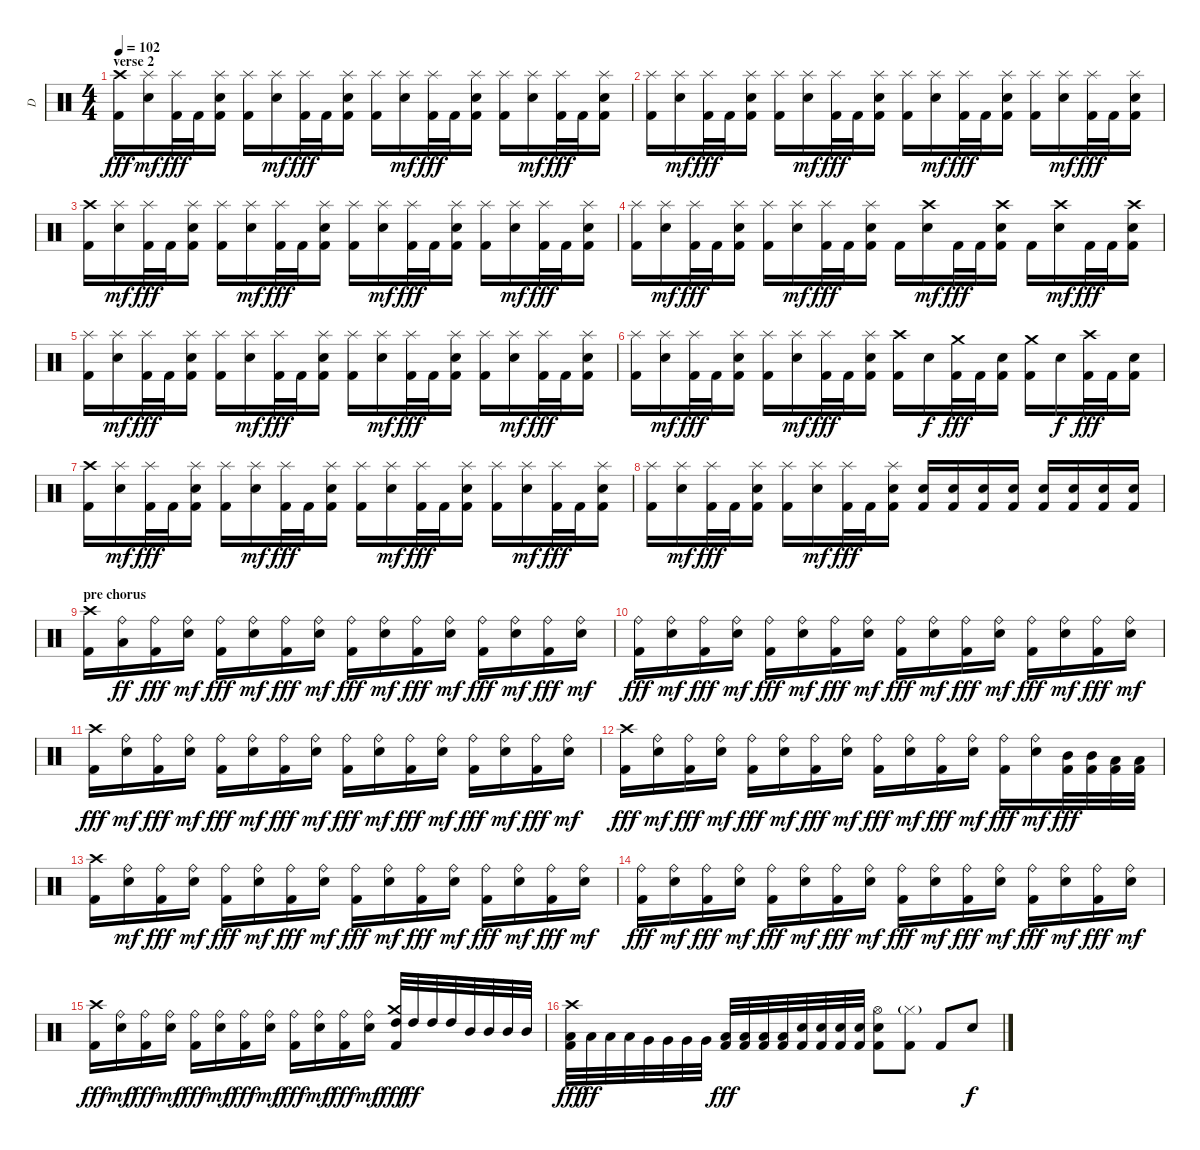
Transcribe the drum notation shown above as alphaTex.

\track ("D" "D") {instrument percussion}
\staff {score}
\articulation defaults
\ts (4 4)
\section ("" "verse 2")
\tempo 102
\clef neutral
\ks c
("Crash high (hit)" "Kick (hit) 2").16{dy fff} ("Splash (hit)" "Snare (hit) 2").16{dy mf} ("Splash (hit)" "Kick (hit) 2").32{dy fff} "Kick (hit) 2".32 ("Splash (hit)" "Snare (hit) 2" "Kick (hit) 2").16 ("Splash (hit)" "Kick (hit) 2").16 ("Splash (hit)" "Snare (hit) 2").16{dy mf} ("Splash (hit)" "Kick (hit) 2").32{dy fff} "Kick (hit) 2".32 ("Splash (hit)" "Snare (hit) 2" "Kick (hit) 2").16 ("Splash (hit)" "Kick (hit) 2").16 ("Splash (hit)" "Snare (hit) 2").16{dy mf} ("Splash (hit)" "Kick (hit) 2").32{dy fff} "Kick (hit) 2".32 ("Splash (hit)" "Snare (hit) 2" "Kick (hit) 2").16 ("Splash (hit)" "Kick (hit) 2").16 ("Splash (hit)" "Snare (hit) 2").16{dy mf} ("Splash (hit)" "Kick (hit) 2").32{dy fff} "Kick (hit) 2".32 ("Splash (hit)" "Snare (hit) 2" "Kick (hit) 2").16 |
("Splash (hit)" "Kick (hit) 2").16 ("Splash (hit)" "Snare (hit) 2").16{dy mf} ("Splash (hit)" "Kick (hit) 2").32{dy fff} "Kick (hit) 2".32 ("Splash (hit)" "Snare (hit) 2" "Kick (hit) 2").16 ("Splash (hit)" "Kick (hit) 2").16 ("Splash (hit)" "Snare (hit) 2").16{dy mf} ("Splash (hit)" "Kick (hit) 2").32{dy fff} "Kick (hit) 2".32 ("Splash (hit)" "Snare (hit) 2" "Kick (hit) 2").16 ("Splash (hit)" "Kick (hit) 2").16 ("Splash (hit)" "Snare (hit) 2").16{dy mf} ("Splash (hit)" "Kick (hit) 2").32{dy fff} "Kick (hit) 2".32 ("Splash (hit)" "Snare (hit) 2" "Kick (hit) 2").16 ("Splash (hit)" "Kick (hit) 2").16 ("Splash (hit)" "Snare (hit) 2").16{dy mf} ("Splash (hit)" "Kick (hit) 2").32{dy fff} "Kick (hit) 2".32 ("Splash (hit)" "Snare (hit) 2" "Kick (hit) 2").16 |
("Crash high (hit)" "Kick (hit) 2").16 ("Splash (hit)" "Snare (hit) 2").16{dy mf} ("Splash (hit)" "Kick (hit) 2").32{dy fff} "Kick (hit) 2".32 ("Splash (hit)" "Snare (hit) 2" "Kick (hit) 2").16 ("Splash (hit)" "Kick (hit) 2").16 ("Splash (hit)" "Snare (hit) 2").16{dy mf} ("Splash (hit)" "Kick (hit) 2").32{dy fff} "Kick (hit) 2".32 ("Splash (hit)" "Snare (hit) 2" "Kick (hit) 2").16 ("Splash (hit)" "Kick (hit) 2").16 ("Splash (hit)" "Snare (hit) 2").16{dy mf} ("Splash (hit)" "Kick (hit) 2").32{dy fff} "Kick (hit) 2".32 ("Splash (hit)" "Snare (hit) 2" "Kick (hit) 2").16 ("Splash (hit)" "Kick (hit) 2").16 ("Splash (hit)" "Snare (hit) 2").16{dy mf} ("Splash (hit)" "Kick (hit) 2").32{dy fff} "Kick (hit) 2".32 ("Splash (hit)" "Snare (hit) 2" "Kick (hit) 2").16 |
("Splash (hit)" "Kick (hit) 2").16 ("Splash (hit)" "Snare (hit) 2").16{dy mf} ("Splash (hit)" "Kick (hit) 2").32{dy fff} "Kick (hit) 2".32 ("Splash (hit)" "Snare (hit) 2" "Kick (hit) 2").16 ("Splash (hit)" "Kick (hit) 2").16 ("Splash (hit)" "Snare (hit) 2").16{dy mf} ("Splash (hit)" "Kick (hit) 2").32{dy fff} "Kick (hit) 2".32 ("Splash (hit)" "Snare (hit) 2" "Kick (hit) 2").16 "Kick (hit) 2".16 ("Crash high (hit)" "Snare (hit) 2").16{dy mf} "Kick (hit) 2".32{dy fff} "Kick (hit) 2".32 ("Crash high (hit)" "Snare (hit) 2" "Kick (hit) 2").16 "Kick (hit) 2".16 ("Crash high (hit)" "Snare (hit) 2").16{dy mf} "Kick (hit) 2".32{dy fff} "Kick (hit) 2".32 ("Crash high (hit)" "Snare (hit) 2" "Kick (hit) 2").16 |
("Splash (hit)" "Kick (hit) 2").16 ("Splash (hit)" "Snare (hit) 2").16{dy mf} ("Splash (hit)" "Kick (hit) 2").32{dy fff} "Kick (hit) 2".32 ("Splash (hit)" "Snare (hit) 2" "Kick (hit) 2").16 ("Splash (hit)" "Kick (hit) 2").16 ("Splash (hit)" "Snare (hit) 2").16{dy mf} ("Splash (hit)" "Kick (hit) 2").32{dy fff} "Kick (hit) 2".32 ("Splash (hit)" "Snare (hit) 2" "Kick (hit) 2").16 ("Splash (hit)" "Kick (hit) 2").16 ("Splash (hit)" "Snare (hit) 2").16{dy mf} ("Splash (hit)" "Kick (hit) 2").32{dy fff} "Kick (hit) 2".32 ("Splash (hit)" "Snare (hit) 2" "Kick (hit) 2").16 ("Splash (hit)" "Kick (hit) 2").16 ("Splash (hit)" "Snare (hit) 2").16{dy mf} ("Splash (hit)" "Kick (hit) 2").32{dy fff} "Kick (hit) 2".32 ("Splash (hit)" "Snare (hit) 2" "Kick (hit) 2").16 |
("Splash (hit)" "Kick (hit) 2").16 ("Splash (hit)" "Snare (hit) 2").16{dy mf} ("Splash (hit)" "Kick (hit) 2").32{dy fff} "Kick (hit) 2".32 ("Splash (hit)" "Snare (hit) 2" "Kick (hit) 2").16 ("Splash (hit)" "Kick (hit) 2").16 ("Splash (hit)" "Snare (hit) 2").16{dy mf} ("Splash (hit)" "Kick (hit) 2").32{dy fff} "Kick (hit) 2".32 ("Splash (hit)" "Snare (hit) 2" "Kick (hit) 2").16 ("Crash high (hit)" "Kick (hit) 2").16 "Snare (hit) 2".16{dy f} ("Crash medium (hit)" "Kick (hit) 2").32{dy fff} "Kick (hit) 2".32 ("Snare (hit) 2" "Kick (hit) 2").16 ("Crash medium (hit)" "Kick (hit) 2").16 "Snare (hit) 2".16{dy f} ("Crash high (hit)" "Kick (hit) 2").32{dy fff} "Kick (hit) 2".32 ("Snare (hit) 2" "Kick (hit) 2").16 |
("Crash high (hit)" "Kick (hit) 2").16 ("Splash (hit)" "Snare (hit) 2").16{dy mf} ("Splash (hit)" "Kick (hit) 2").32{dy fff} "Kick (hit) 2".32 ("Splash (hit)" "Snare (hit) 2" "Kick (hit) 2").16 ("Splash (hit)" "Kick (hit) 2").16 ("Splash (hit)" "Snare (hit) 2").16{dy mf} ("Splash (hit)" "Kick (hit) 2").32{dy fff} "Kick (hit) 2".32 ("Splash (hit)" "Snare (hit) 2" "Kick (hit) 2").16 ("Splash (hit)" "Kick (hit) 2").16 ("Splash (hit)" "Snare (hit) 2").16{dy mf} ("Splash (hit)" "Kick (hit) 2").32{dy fff} "Kick (hit) 2".32 ("Splash (hit)" "Snare (hit) 2" "Kick (hit) 2").16 ("Splash (hit)" "Kick (hit) 2").16 ("Splash (hit)" "Snare (hit) 2").16{dy mf} ("Splash (hit)" "Kick (hit) 2").32{dy fff} "Kick (hit) 2".32 ("Splash (hit)" "Snare (hit) 2" "Kick (hit) 2").16 |
("Splash (hit)" "Kick (hit) 2").16 ("Splash (hit)" "Snare (hit) 2").16{dy mf} ("Splash (hit)" "Kick (hit) 2").32{dy fff} "Kick (hit) 2".32 ("Splash (hit)" "Snare (hit) 2" "Kick (hit) 2").16 ("Splash (hit)" "Kick (hit) 2").16 ("Splash (hit)" "Snare (hit) 2").16{dy mf} ("Splash (hit)" "Kick (hit) 2").32{dy fff} "Kick (hit) 2".32 ("Splash (hit)" "Snare (hit) 2" "Kick (hit) 2").16 ("Snare (hit) 2" "Kick (hit) 2").16 ("Snare (hit) 2" "Kick (hit) 2").16 ("Snare (hit) 2" "Kick (hit) 2").16 ("Snare (hit) 2" "Kick (hit) 2").16 ("Snare (hit) 2" "Kick (hit) 2").16 ("Snare (hit) 2" "Kick (hit) 2").16 ("Snare (hit) 2" "Kick (hit) 2").16 ("Snare (hit) 2" "Kick (hit) 2").16 |
\section ("" "pre chorus")
("Crash high (hit)" "Kick (hit) 2").16 ("Ride (bell)" "Low Tom (hit)").16{dy ff} ("Ride (bell)" "Kick (hit) 2").16{dy fff} ("Ride (bell)" "Snare (hit) 2").16{dy mf} ("Ride (bell)" "Kick (hit) 2").16{dy fff} ("Ride (bell)" "Snare (hit) 2").16{dy mf} ("Ride (bell)" "Kick (hit) 2").16{dy fff} ("Ride (bell)" "Snare (hit) 2").16{dy mf} ("Ride (bell)" "Kick (hit) 2").16{dy fff} ("Ride (bell)" "Snare (hit) 2").16{dy mf} ("Ride (bell)" "Kick (hit) 2").16{dy fff} ("Ride (bell)" "Snare (hit) 2").16{dy mf} ("Ride (bell)" "Kick (hit) 2").16{dy fff} ("Ride (bell)" "Snare (hit) 2").16{dy mf} ("Ride (bell)" "Kick (hit) 2").16{dy fff} ("Ride (bell)" "Snare (hit) 2").16{dy mf} |
("Ride (bell)" "Kick (hit) 2").16{dy fff} ("Ride (bell)" "Snare (hit) 2").16{dy mf} ("Ride (bell)" "Kick (hit) 2").16{dy fff} ("Ride (bell)" "Snare (hit) 2").16{dy mf} ("Ride (bell)" "Kick (hit) 2").16{dy fff} ("Ride (bell)" "Snare (hit) 2").16{dy mf} ("Ride (bell)" "Kick (hit) 2").16{dy fff} ("Ride (bell)" "Snare (hit) 2").16{dy mf} ("Ride (bell)" "Kick (hit) 2").16{dy fff} ("Ride (bell)" "Snare (hit) 2").16{dy mf} ("Ride (bell)" "Kick (hit) 2").16{dy fff} ("Ride (bell)" "Snare (hit) 2").16{dy mf} ("Ride (bell)" "Kick (hit) 2").16{dy fff} ("Ride (bell)" "Snare (hit) 2").16{dy mf} ("Ride (bell)" "Kick (hit) 2").16{dy fff} ("Ride (bell)" "Snare (hit) 2").16{dy mf} |
("Crash high (hit)" "Kick (hit) 2").16{dy fff} ("Ride (bell)" "Snare (hit) 2").16{dy mf} ("Ride (bell)" "Kick (hit) 2").16{dy fff} ("Ride (bell)" "Snare (hit) 2").16{dy mf} ("Ride (bell)" "Kick (hit) 2").16{dy fff} ("Ride (bell)" "Snare (hit) 2").16{dy mf} ("Ride (bell)" "Kick (hit) 2").16{dy fff} ("Ride (bell)" "Snare (hit) 2").16{dy mf} ("Ride (bell)" "Kick (hit) 2").16{dy fff} ("Ride (bell)" "Snare (hit) 2").16{dy mf} ("Ride (bell)" "Kick (hit) 2").16{dy fff} ("Ride (bell)" "Snare (hit) 2").16{dy mf} ("Ride (bell)" "Kick (hit) 2").16{dy fff} ("Ride (bell)" "Snare (hit) 2").16{dy mf} ("Ride (bell)" "Kick (hit) 2").16{dy fff} ("Ride (bell)" "Snare (hit) 2").16{dy mf} |
("Crash high (hit)" "Kick (hit) 2").16{dy fff} ("Ride (bell)" "Snare (hit) 2").16{dy mf} ("Ride (bell)" "Kick (hit) 2").16{dy fff} ("Ride (bell)" "Snare (hit) 2").16{dy mf} ("Ride (bell)" "Kick (hit) 2").16{dy fff} ("Ride (bell)" "Snare (hit) 2").16{dy mf} ("Ride (bell)" "Kick (hit) 2").16{dy fff} ("Ride (bell)" "Snare (hit) 2").16{dy mf} ("Ride (bell)" "Kick (hit) 2").16{dy fff} ("Ride (bell)" "Snare (hit) 2").16{dy mf} ("Ride (bell)" "Kick (hit) 2").16{dy fff} ("Ride (bell)" "Snare (hit) 2").16{dy mf} ("Ride (bell)" "Kick (hit) 2").16{dy fff} ("Ride (bell)" "Snare (hit) 2").16{dy mf} ("Mid Tom (hit)" "Kick (hit) 2").32{dy fff} ("Mid Tom (hit)" "Kick (hit) 2").32 ("Low Tom (hit)" "Kick (hit) 2").32 ("Low Tom (hit)" "Kick (hit) 2").32 |
("Crash high (hit)" "Kick (hit) 2").16 ("Ride (bell)" "Snare (hit) 2").16{dy mf} ("Ride (bell)" "Kick (hit) 2").16{dy fff} ("Ride (bell)" "Snare (hit) 2").16{dy mf} ("Ride (bell)" "Kick (hit) 2").16{dy fff} ("Ride (bell)" "Snare (hit) 2").16{dy mf} ("Ride (bell)" "Kick (hit) 2").16{dy fff} ("Ride (bell)" "Snare (hit) 2").16{dy mf} ("Ride (bell)" "Kick (hit) 2").16{dy fff} ("Ride (bell)" "Snare (hit) 2").16{dy mf} ("Ride (bell)" "Kick (hit) 2").16{dy fff} ("Ride (bell)" "Snare (hit) 2").16{dy mf} ("Ride (bell)" "Kick (hit) 2").16{dy fff} ("Ride (bell)" "Snare (hit) 2").16{dy mf} ("Ride (bell)" "Kick (hit) 2").16{dy fff} ("Ride (bell)" "Snare (hit) 2").16{dy mf} |
("Ride (bell)" "Kick (hit) 2").16{dy fff} ("Ride (bell)" "Snare (hit) 2").16{dy mf} ("Ride (bell)" "Kick (hit) 2").16{dy fff} ("Ride (bell)" "Snare (hit) 2").16{dy mf} ("Ride (bell)" "Kick (hit) 2").16{dy fff} ("Ride (bell)" "Snare (hit) 2").16{dy mf} ("Ride (bell)" "Kick (hit) 2").16{dy fff} ("Ride (bell)" "Snare (hit) 2").16{dy mf} ("Ride (bell)" "Kick (hit) 2").16{dy fff} ("Ride (bell)" "Snare (hit) 2").16{dy mf} ("Ride (bell)" "Kick (hit) 2").16{dy fff} ("Ride (bell)" "Snare (hit) 2").16{dy mf} ("Ride (bell)" "Kick (hit) 2").16{dy fff} ("Ride (bell)" "Snare (hit) 2").16{dy mf} ("Ride (bell)" "Kick (hit) 2").16{dy fff} ("Ride (bell)" "Snare (hit) 2").16{dy mf} |
("Crash high (hit)" "Kick (hit) 2").16{dy fff} ("Ride (bell)" "Snare (hit) 2").16{dy mf} ("Ride (bell)" "Kick (hit) 2").16{dy fff} ("Ride (bell)" "Snare (hit) 2").16{dy mf} ("Ride (bell)" "Kick (hit) 2").16{dy fff} ("Ride (bell)" "Snare (hit) 2").16{dy mf} ("Ride (bell)" "Kick (hit) 2").16{dy fff} ("Ride (bell)" "Snare (hit) 2").16{dy mf} ("Ride (bell)" "Kick (hit) 2").16{dy fff} ("Ride (bell)" "Snare (hit) 2").16{dy mf} ("Ride (bell)" "Kick (hit) 2").16{dy fff} ("Ride (bell)" "Snare (hit) 2").16{dy mf} ("Crash medium (hit)" "High Tom (hit)" "Kick (hit) 2").32{dy fff} "High Tom (hit)".32{dy ff} "High Tom (hit)".32 "High Tom (hit)".32 "Mid Tom (hit)".32 "Mid Tom (hit)".32 "Mid Tom (hit)".32 "Mid Tom (hit)".32 |
("Crash high (hit)" "Low Tom (hit)" "Kick (hit) 2").32{dy fff} "Low Tom (hit)".32{dy ff} "Low Tom (hit)".32 "Low Tom (hit)".32 "Very Low Tom (hit)".32 "Very Low Tom (hit)".32 "Very Low Tom (hit)".32 "Very Low Tom (hit)".32 ("Low Floor Tom (hit)" "Kick (hit) 2").32{dy fff} ("Low Floor Tom (hit)" "Kick (hit) 2").32 ("Low Floor Tom (hit)" "Kick (hit) 2").32 ("Low Floor Tom (hit)" "Kick (hit) 2").32 ("Snare (hit) 2" "Kick (hit) 2").32 ("Snare (hit) 2" "Kick (hit) 2").32 ("Snare (hit) 2" "Kick (hit) 2").32 ("Snare (hit) 2" "Kick (hit) 2").32 ("Hi-Hat (open)" "Snare (hit) 2" "Kick (hit) 2").8 ("Hi-Hat (closed)"{g} "Kick (hit) 2").8 "Kick (hit) 2".8 "Snare (hit) 2".8{dy f}
